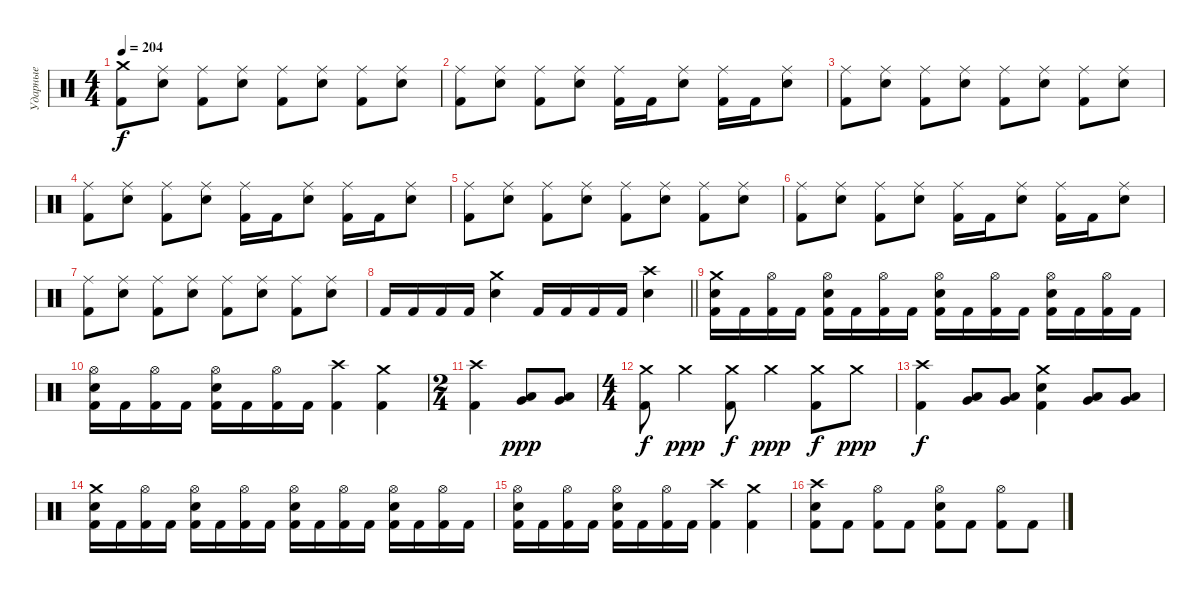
\track ("Ударные" "Ударные") {instrument percussion}
\staff {score}
\articulation defaults
\ts (4 4)
\tempo 204
\clef neutral
\ks c
("Crash medium (hit)" "Kick (hit) 2").8{dy f} ("Ride (middle)" "Snare (hit) 2").8 ("Ride (middle)" "Kick (hit) 2").8 ("Ride (middle)" "Snare (hit) 2").8 ("Ride (middle)" "Kick (hit) 2").8 ("Ride (middle)" "Snare (hit) 2").8 ("Ride (middle)" "Kick (hit) 2").8 ("Ride (middle)" "Snare (hit) 2").8 |
("Ride (middle)" "Kick (hit) 2").8 ("Ride (middle)" "Snare (hit) 2").8 ("Ride (middle)" "Kick (hit) 2").8 ("Ride (middle)" "Snare (hit) 2").8 ("Ride (middle)" "Kick (hit) 2").16 "Kick (hit) 2".16 ("Ride (middle)" "Snare (hit) 2").8 ("Ride (middle)" "Kick (hit) 2").16 "Kick (hit) 2".16 ("Ride (middle)" "Snare (hit) 2").8 |
("Ride (middle)" "Kick (hit) 2").8 ("Ride (middle)" "Snare (hit) 2").8 ("Ride (middle)" "Kick (hit) 2").8 ("Ride (middle)" "Snare (hit) 2").8 ("Ride (middle)" "Kick (hit) 2").8 ("Ride (middle)" "Snare (hit) 2").8 ("Ride (middle)" "Kick (hit) 2").8 ("Ride (middle)" "Snare (hit) 2").8 |
("Ride (middle)" "Kick (hit) 2").8 ("Ride (middle)" "Snare (hit) 2").8 ("Ride (middle)" "Kick (hit) 2").8 ("Ride (middle)" "Snare (hit) 2").8 ("Ride (middle)" "Kick (hit) 2").16 "Kick (hit) 2".16 ("Ride (middle)" "Snare (hit) 2").8 ("Ride (middle)" "Kick (hit) 2").16 "Kick (hit) 2".16 ("Ride (middle)" "Snare (hit) 2").8 |
("Ride (middle)" "Kick (hit) 2").8 ("Ride (middle)" "Snare (hit) 2").8 ("Ride (middle)" "Kick (hit) 2").8 ("Ride (middle)" "Snare (hit) 2").8 ("Ride (middle)" "Kick (hit) 2").8 ("Ride (middle)" "Snare (hit) 2").8 ("Ride (middle)" "Kick (hit) 2").8 ("Ride (middle)" "Snare (hit) 2").8 |
("Ride (middle)" "Kick (hit) 2").8 ("Ride (middle)" "Snare (hit) 2").8 ("Ride (middle)" "Kick (hit) 2").8 ("Ride (middle)" "Snare (hit) 2").8 ("Ride (middle)" "Kick (hit) 2").16 "Kick (hit) 2".16 ("Ride (middle)" "Snare (hit) 2").8 ("Ride (middle)" "Kick (hit) 2").16 "Kick (hit) 2".16 ("Ride (middle)" "Snare (hit) 2").8 |
("Ride (middle)" "Kick (hit) 2").8 ("Ride (middle)" "Snare (hit) 2").8 ("Ride (middle)" "Kick (hit) 2").8 ("Ride (middle)" "Snare (hit) 2").8 ("Ride (middle)" "Kick (hit) 2").8 ("Ride (middle)" "Snare (hit) 2").8 ("Ride (middle)" "Kick (hit) 2").8 ("Ride (middle)" "Snare (hit) 2").8 |
\barLineRight lightlight "Kick (hit) 2".16 "Kick (hit) 2".16 "Kick (hit) 2".16 "Kick (hit) 2".16
("Crash medium (hit)" "Snare (hit) 2").4 "Kick (hit) 2".16 "Kick (hit) 2".16 "Kick (hit) 2".16 "Kick (hit) 2".16 ("Crash high (hit)" "Snare (hit) 2").4 |
("Crash medium (hit)" "Snare (hit) 2" "Kick (hit) 2").16 "Kick (hit) 2".16 ("Hi-Hat (open)" "Kick (hit) 2").16 "Kick (hit) 2".16 ("Hi-Hat (open)" "Snare (hit) 2" "Kick (hit) 2").16 "Kick (hit) 2".16 ("Hi-Hat (open)" "Kick (hit) 2").16 "Kick (hit) 2".16 ("Hi-Hat (open)" "Snare (hit) 2" "Kick (hit) 2").16 "Kick (hit) 2".16 ("Hi-Hat (open)" "Kick (hit) 2").16 "Kick (hit) 2".16 ("Hi-Hat (open)" "Snare (hit) 2" "Kick (hit) 2").16 "Kick (hit) 2".16 ("Hi-Hat (open)" "Kick (hit) 2").16 "Kick (hit) 2".16 |
("Hi-Hat (open)" "Snare (hit) 2" "Kick (hit) 2").16 "Kick (hit) 2".16 ("Hi-Hat (open)" "Kick (hit) 2").16 "Kick (hit) 2".16 ("Hi-Hat (open)" "Snare (hit) 2" "Kick (hit) 2").16 "Kick (hit) 2".16 ("Hi-Hat (open)" "Kick (hit) 2").16 "Kick (hit) 2".16 ("Crash high (hit)" "Kick (hit) 2").4 ("Crash medium (hit)" "Kick (hit) 2").4 |
\ts (2 4)
("Crash high (hit)" "Kick (hit) 2").4 ("Low Tom (hit)" "Very Low Tom (hit)").8{dy ppp} ("Low Tom (hit)" "Very Low Tom (hit)").8 |
\ts (4 4)
("Crash medium (hit)" "Kick (hit) 2").8{dy f} "Crash medium (hit)".4{dy ppp} ("Crash medium (hit)" "Kick (hit) 2").8{dy f} "Crash medium (hit)".4{dy ppp} ("Crash medium (hit)" "Kick (hit) 2").8{dy f} "Crash medium (hit)".8{dy ppp} |
("Crash high (hit)" "Kick (hit) 2").4{dy f} ("Low Tom (hit)" "Very Low Tom (hit)").8 ("Low Tom (hit)" "Very Low Tom (hit)").8 ("Crash medium (hit)" "Snare (hit) 2" "Kick (hit) 2").4 ("Low Tom (hit)" "Very Low Tom (hit)").8 ("Low Tom (hit)" "Very Low Tom (hit)").8 |
("Crash medium (hit)" "Snare (hit) 2" "Kick (hit) 2").16 "Kick (hit) 2".16 ("Hi-Hat (open)" "Kick (hit) 2").16 "Kick (hit) 2".16 ("Hi-Hat (open)" "Snare (hit) 2" "Kick (hit) 2").16 "Kick (hit) 2".16 ("Hi-Hat (open)" "Kick (hit) 2").16 "Kick (hit) 2".16 ("Hi-Hat (open)" "Snare (hit) 2" "Kick (hit) 2").16 "Kick (hit) 2".16 ("Hi-Hat (open)" "Kick (hit) 2").16 "Kick (hit) 2".16 ("Hi-Hat (open)" "Snare (hit) 2" "Kick (hit) 2").16 "Kick (hit) 2".16 ("Hi-Hat (open)" "Kick (hit) 2").16 "Kick (hit) 2".16 |
("Hi-Hat (open)" "Snare (hit) 2" "Kick (hit) 2").16 "Kick (hit) 2".16 ("Hi-Hat (open)" "Kick (hit) 2").16 "Kick (hit) 2".16 ("Hi-Hat (open)" "Snare (hit) 2" "Kick (hit) 2").16 "Kick (hit) 2".16 ("Hi-Hat (open)" "Kick (hit) 2").16 "Kick (hit) 2".16 ("Crash high (hit)" "Kick (hit) 2").4 ("Crash medium (hit)" "Kick (hit) 2").4 |
("Crash high (hit)" "Snare (hit) 2" "Kick (hit) 2").8 "Kick (hit) 2".8 ("Hi-Hat (open)" "Kick (hit) 2").8 "Kick (hit) 2".8 ("Hi-Hat (open)" "Snare (hit) 2" "Kick (hit) 2").8 "Kick (hit) 2".8 ("Hi-Hat (open)" "Kick (hit) 2").8 "Kick (hit) 2".8
